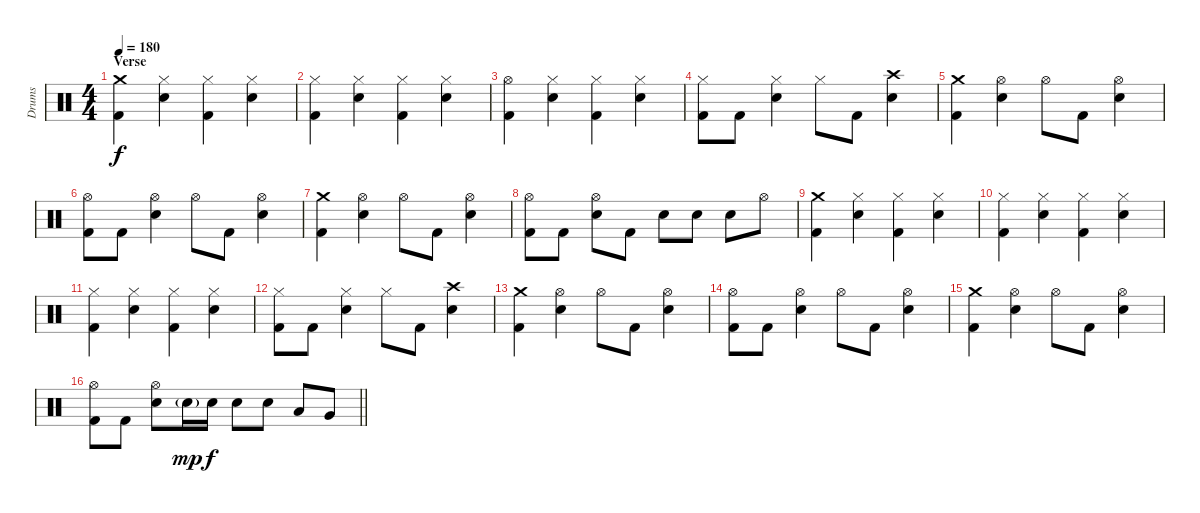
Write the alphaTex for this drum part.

\track ("Drums" "Drums") {instrument percussion}
\staff {score}
\articulation defaults
\ts (4 4)
\section ("" "Verse")
\tempo 180
\clef neutral
\ks c
("Crash medium (hit)" "Kick (hit) 2").4{dy f} ("Hi-Hat (closed)" "Electric Snare (hit)").4 ("Hi-Hat (closed)" "Kick (hit) 2").4 ("Hi-Hat (closed)" "Electric Snare (hit)").4 |
("Hi-Hat (closed)" "Kick (hit) 2").4 ("Hi-Hat (closed)" "Electric Snare (hit)").4 ("Hi-Hat (closed)" "Kick (hit) 2").4 ("Hi-Hat (closed)" "Electric Snare (hit)").4 |
("Hi-Hat (open)" "Kick (hit) 2").4 ("Hi-Hat (closed)" "Electric Snare (hit)").4 ("Hi-Hat (closed)" "Kick (hit) 2").4 ("Hi-Hat (closed)" "Electric Snare (hit)").4 |
("Hi-Hat (closed)" "Kick (hit) 2").8 "Kick (hit) 2".8 ("Hi-Hat (closed)" "Electric Snare (hit)").4 "Hi-Hat (closed)".8 "Kick (hit) 2".8 ("Crash high (hit)" "Electric Snare (hit)").4 |
("Crash medium (hit)" "Kick (hit) 2").4 ("Hi-Hat (open)" "Electric Snare (hit)").4 "Hi-Hat (open)".8 "Kick (hit) 2".8 ("Hi-Hat (open)" "Electric Snare (hit)").4 |
("Hi-Hat (open)" "Kick (hit) 2").8 "Kick (hit) 2".8 ("Hi-Hat (open)" "Electric Snare (hit)").4 "Hi-Hat (open)".8 "Kick (hit) 2".8 ("Hi-Hat (open)" "Electric Snare (hit)").4 |
("Crash medium (hit)" "Kick (hit) 2").4 ("Hi-Hat (open)" "Electric Snare (hit)").4 "Hi-Hat (open)".8 "Kick (hit) 2".8 ("Hi-Hat (open)" "Electric Snare (hit)").4 |
("Hi-Hat (open)" "Kick (hit) 2").8 "Kick (hit) 2".8 ("Hi-Hat (open)" "Electric Snare (hit)").8 "Kick (hit) 2".8 "Electric Snare (hit)".8 "Electric Snare (hit)".8 "Electric Snare (hit)".8 "Hi-Hat (open)".8 |
("Crash medium (hit)" "Kick (hit) 2").4 ("Hi-Hat (closed)" "Electric Snare (hit)").4 ("Hi-Hat (closed)" "Kick (hit) 2").4 ("Hi-Hat (closed)" "Electric Snare (hit)").4 |
("Hi-Hat (closed)" "Kick (hit) 2").4 ("Hi-Hat (closed)" "Electric Snare (hit)").4 ("Hi-Hat (closed)" "Kick (hit) 2").4 ("Hi-Hat (closed)" "Electric Snare (hit)").4 |
("Hi-Hat (closed)" "Kick (hit) 2").4 ("Hi-Hat (closed)" "Electric Snare (hit)").4 ("Hi-Hat (closed)" "Kick (hit) 2").4 ("Hi-Hat (closed)" "Electric Snare (hit)").4 |
("Hi-Hat (closed)" "Kick (hit) 2").8 "Kick (hit) 2".8 ("Hi-Hat (closed)" "Electric Snare (hit)").4 "Hi-Hat (closed)".8 "Kick (hit) 2".8 ("Crash high (hit)" "Electric Snare (hit)").4 |
("Crash medium (hit)" "Kick (hit) 2").4 ("Hi-Hat (open)" "Electric Snare (hit)").4 "Hi-Hat (open)".8 "Kick (hit) 2".8 ("Hi-Hat (open)" "Electric Snare (hit)").4 |
("Hi-Hat (open)" "Kick (hit) 2").8 "Kick (hit) 2".8 ("Hi-Hat (open)" "Electric Snare (hit)").4 "Hi-Hat (open)".8 "Kick (hit) 2".8 ("Hi-Hat (open)" "Electric Snare (hit)").4 |
("Crash medium (hit)" "Kick (hit) 2").4 ("Hi-Hat (open)" "Electric Snare (hit)").4 "Hi-Hat (open)".8 "Kick (hit) 2".8 ("Hi-Hat (open)" "Electric Snare (hit)").4 |
\barLineRight lightlight
("Hi-Hat (open)" "Kick (hit) 2").8 "Kick (hit) 2".8 ("Hi-Hat (open)" "Electric Snare (hit)").8 "Electric Snare (hit)"{g}.16{dy mp} "Electric Snare (hit)".16{dy f} "Electric Snare (hit)".8 "Electric Snare (hit)".8 "Low Tom (hit)".8 "Very Low Tom (hit)".8
